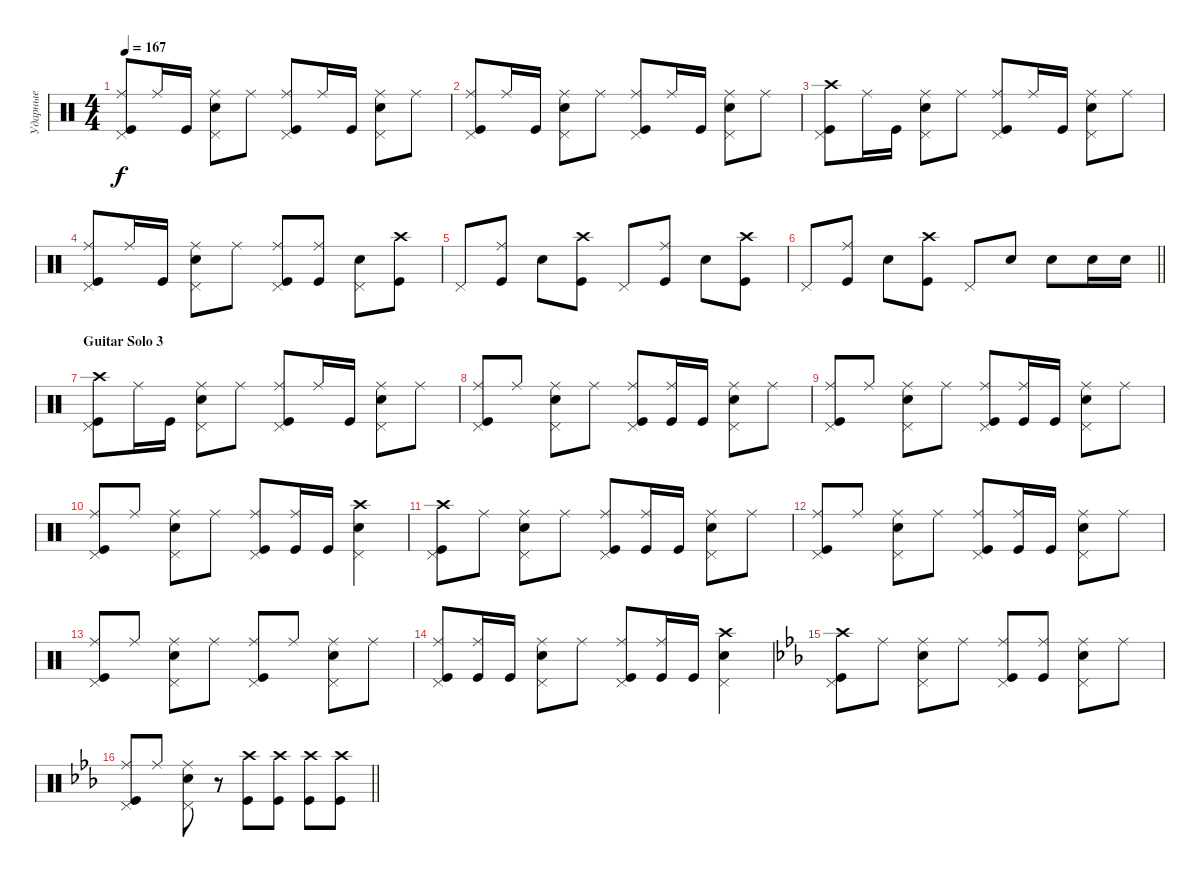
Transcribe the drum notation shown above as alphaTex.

\track ("Ударные" "Ударные") {instrument percussion}
\staff {score}
\articulation defaults
\ts (4 4)
\tempo 167
\clef neutral
\ks aminor
("Kick (hit)" "Ride (middle)" "Pedal Hi-Hat (hit)").8{dy f} "Ride (middle)".16 "Kick (hit)".16 ("Snare (hit) 2" "Ride (middle)" "Pedal Hi-Hat (hit)").8 "Ride (middle)".8 ("Ride (middle)" "Kick (hit)" "Pedal Hi-Hat (hit)").8 "Ride (middle)".16 "Kick (hit)".16 ("Snare (hit) 2" "Ride (middle)" "Pedal Hi-Hat (hit)").8 "Ride (middle)".8 |
("Kick (hit)" "Ride (middle)" "Pedal Hi-Hat (hit)").8 "Ride (middle)".16 "Kick (hit)".16 ("Snare (hit) 2" "Ride (middle)" "Pedal Hi-Hat (hit)").8 "Ride (middle)".8 ("Ride (middle)" "Kick (hit)" "Pedal Hi-Hat (hit)").8 "Ride (middle)".16 "Kick (hit)".16 ("Snare (hit) 2" "Ride (middle)" "Pedal Hi-Hat (hit)").8 "Ride (middle)".8 |
("Kick (hit)" "Crash high (hit)" "Pedal Hi-Hat (hit)").8 "Ride (middle)".16 "Kick (hit)".16 ("Snare (hit) 2" "Ride (middle)" "Pedal Hi-Hat (hit)").8 "Ride (middle)".8 ("Ride (middle)" "Kick (hit)" "Pedal Hi-Hat (hit)").8 "Ride (middle)".16 "Kick (hit)".16 ("Snare (hit) 2" "Ride (middle)" "Pedal Hi-Hat (hit)").8 "Ride (middle)".8 |
("Kick (hit)" "Ride (middle)" "Pedal Hi-Hat (hit)").8 "Ride (middle)".16 "Kick (hit)".16 ("Snare (hit) 2" "Ride (middle)" "Pedal Hi-Hat (hit)").8 "Ride (middle)".8 ("Ride (middle)" "Kick (hit)" "Pedal Hi-Hat (hit)").8 ("Ride (middle)" "Kick (hit)").8 ("Snare (hit) 2" "Pedal Hi-Hat (hit)").8 ("Kick (hit)" "Crash high (hit)").8 |
"Pedal Hi-Hat (hit)".8 ("Kick (hit)" "Ride (middle)").8 "Snare (hit) 2".8 ("Kick (hit)" "Crash high (hit)").8 "Pedal Hi-Hat (hit)".8 ("Kick (hit)" "Ride (middle)").8 "Snare (hit) 2".8 ("Kick (hit)" "Crash high (hit)").8 |
\barLineRight lightlight "Pedal Hi-Hat (hit)".8
("Kick (hit)" "Ride (middle)").8 "Snare (hit) 2".8 ("Kick (hit)" "Crash high (hit)").8 "Pedal Hi-Hat (hit)".8 "Snare (hit) 2".8 "Snare (hit) 2".8 "Snare (hit) 2".16 "Snare (hit) 2".16 |
\section ("" "Guitar Solo 3")
("Kick (hit)" "Crash high (hit)" "Pedal Hi-Hat (hit)").8 "Ride (middle)".16 "Kick (hit)".16 ("Snare (hit) 2" "Ride (middle)" "Pedal Hi-Hat (hit)").8 "Ride (middle)".8 ("Ride (middle)" "Kick (hit)" "Pedal Hi-Hat (hit)").8 "Ride (middle)".16 "Kick (hit)".16 ("Snare (hit) 2" "Ride (middle)" "Pedal Hi-Hat (hit)").8 "Ride (middle)".8 |
("Kick (hit)" "Ride (middle)" "Pedal Hi-Hat (hit)").8 "Ride (middle)".8 ("Snare (hit) 2" "Ride (middle)" "Pedal Hi-Hat (hit)").8 "Ride (middle)".8 ("Ride (middle)" "Kick (hit)" "Pedal Hi-Hat (hit)").8 ("Ride (middle)" "Kick (hit)").16 "Kick (hit)".16 ("Snare (hit) 2" "Ride (middle)" "Pedal Hi-Hat (hit)").8 "Ride (middle)".8 |
("Kick (hit)" "Ride (middle)" "Pedal Hi-Hat (hit)").8 "Ride (middle)".8 ("Snare (hit) 2" "Ride (middle)" "Pedal Hi-Hat (hit)").8 "Ride (middle)".8 ("Ride (middle)" "Kick (hit)" "Pedal Hi-Hat (hit)").8 ("Ride (middle)" "Kick (hit)").16 "Kick (hit)".16 ("Snare (hit) 2" "Ride (middle)" "Pedal Hi-Hat (hit)").8 "Ride (middle)".8 |
("Kick (hit)" "Ride (middle)" "Pedal Hi-Hat (hit)").8 "Ride (middle)".8 ("Snare (hit) 2" "Ride (middle)" "Pedal Hi-Hat (hit)").8 "Ride (middle)".8 ("Ride (middle)" "Kick (hit)" "Pedal Hi-Hat (hit)").8 ("Ride (middle)" "Kick (hit)").16 "Kick (hit)".16 ("Snare (hit) 2" "Crash high (hit)" "Pedal Hi-Hat (hit)").4 |
("Kick (hit)" "Crash high (hit)" "Pedal Hi-Hat (hit)").8 "Ride (middle)".8 ("Snare (hit) 2" "Ride (middle)" "Pedal Hi-Hat (hit)").8 "Ride (middle)".8 ("Ride (middle)" "Kick (hit)" "Pedal Hi-Hat (hit)").8 ("Ride (middle)" "Kick (hit)").16 "Kick (hit)".16 ("Snare (hit) 2" "Ride (middle)" "Pedal Hi-Hat (hit)").8 "Ride (middle)".8 |
("Kick (hit)" "Ride (middle)" "Pedal Hi-Hat (hit)").8 "Ride (middle)".8 ("Snare (hit) 2" "Ride (middle)" "Pedal Hi-Hat (hit)").8 "Ride (middle)".8 ("Ride (middle)" "Kick (hit)" "Pedal Hi-Hat (hit)").8 ("Ride (middle)" "Kick (hit)").16 "Kick (hit)".16 ("Snare (hit) 2" "Ride (middle)" "Pedal Hi-Hat (hit)").8 "Ride (middle)".8 |
("Kick (hit)" "Ride (middle)" "Pedal Hi-Hat (hit)").8 "Ride (middle)".8 ("Snare (hit) 2" "Ride (middle)" "Pedal Hi-Hat (hit)").8 "Ride (middle)".8 ("Ride (middle)" "Kick (hit)" "Pedal Hi-Hat (hit)").8 "Ride (middle)".8 ("Snare (hit) 2" "Ride (middle)" "Pedal Hi-Hat (hit)").8 "Ride (middle)".8 |
("Kick (hit)" "Ride (middle)" "Pedal Hi-Hat (hit)").8 ("Ride (middle)" "Kick (hit)").16 "Kick (hit)".16 ("Snare (hit) 2" "Ride (middle)" "Pedal Hi-Hat (hit)").8 "Ride (middle)".8 ("Ride (middle)" "Kick (hit)" "Pedal Hi-Hat (hit)").8 ("Ride (middle)" "Kick (hit)").16 "Kick (hit)".16 ("Snare (hit) 2" "Crash high (hit)" "Pedal Hi-Hat (hit)").4 |
\ks cminor
("Kick (hit)" "Crash high (hit)" "Pedal Hi-Hat (hit)").8 "Ride (middle)".8 ("Ride (middle)" "Snare (hit) 2" "Pedal Hi-Hat (hit)").8 "Ride (middle)".8 ("Ride (middle)" "Kick (hit)" "Pedal Hi-Hat (hit)").8 ("Ride (middle)" "Kick (hit)").8 ("Ride (middle)" "Snare (hit) 2" "Pedal Hi-Hat (hit)").8 "Ride (middle)".8 |
\barLineRight lightlight
("Ride (middle)" "Kick (hit)" "Pedal Hi-Hat (hit)").8 "Ride (middle)".8 ("Ride (middle)" "Snare (hit) 2" "Pedal Hi-Hat (hit)").8 r.8 ("Crash high (hit)" "Kick (hit)").8 ("Crash high (hit)" "Kick (hit)").8 ("Crash high (hit)" "Kick (hit)").8 ("Crash high (hit)" "Kick (hit)").8
